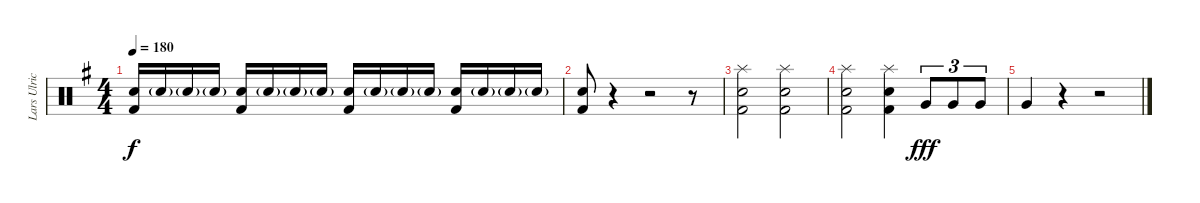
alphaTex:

\track ("Lars Ulrich" "Lars Ulric") {instrument percussion}
\staff {score}
\articulation defaults
\ts (4 4)
\tempo 180
\clef neutral
\ks eminor
("Snare (hit) 2" "Kick (hit) 2").16{dy f} "Snare (hit) 2"{g}.16 "Snare (hit) 2"{g}.16 "Snare (hit) 2"{g}.16 ("Snare (hit) 2" "Kick (hit) 2").16 "Snare (hit) 2"{g}.16 "Snare (hit) 2"{g}.16 "Snare (hit) 2"{g}.16 ("Snare (hit) 2" "Kick (hit) 2").16 "Snare (hit) 2"{g}.16 "Snare (hit) 2"{g}.16 "Snare (hit) 2"{g}.16 ("Snare (hit) 2" "Kick (hit) 2").16 "Snare (hit) 2"{g}.16 "Snare (hit) 2"{g}.16 "Snare (hit) 2"{g}.16 |
("Snare (hit) 2" "Kick (hit) 2").8 r.4 r.2 r.8 |
("Splash (hit)" "Snare (hit) 2" "Kick (hit) 2").2 ("Splash (hit)" "Snare (hit) 2" "Kick (hit) 2").2 |
("Splash (hit)" "Snare (hit) 2" "Kick (hit) 2").2 ("Splash (hit)" "Snare (hit) 2" "Kick (hit) 2").4 "Very Low Tom (hit)".8{tu (3 2) dy fff} "Very Low Tom (hit)".8{tu (3 2)} "Very Low Tom (hit)".8{tu (3 2)} |
"Very Low Tom (hit)".4 r.4 r.2
